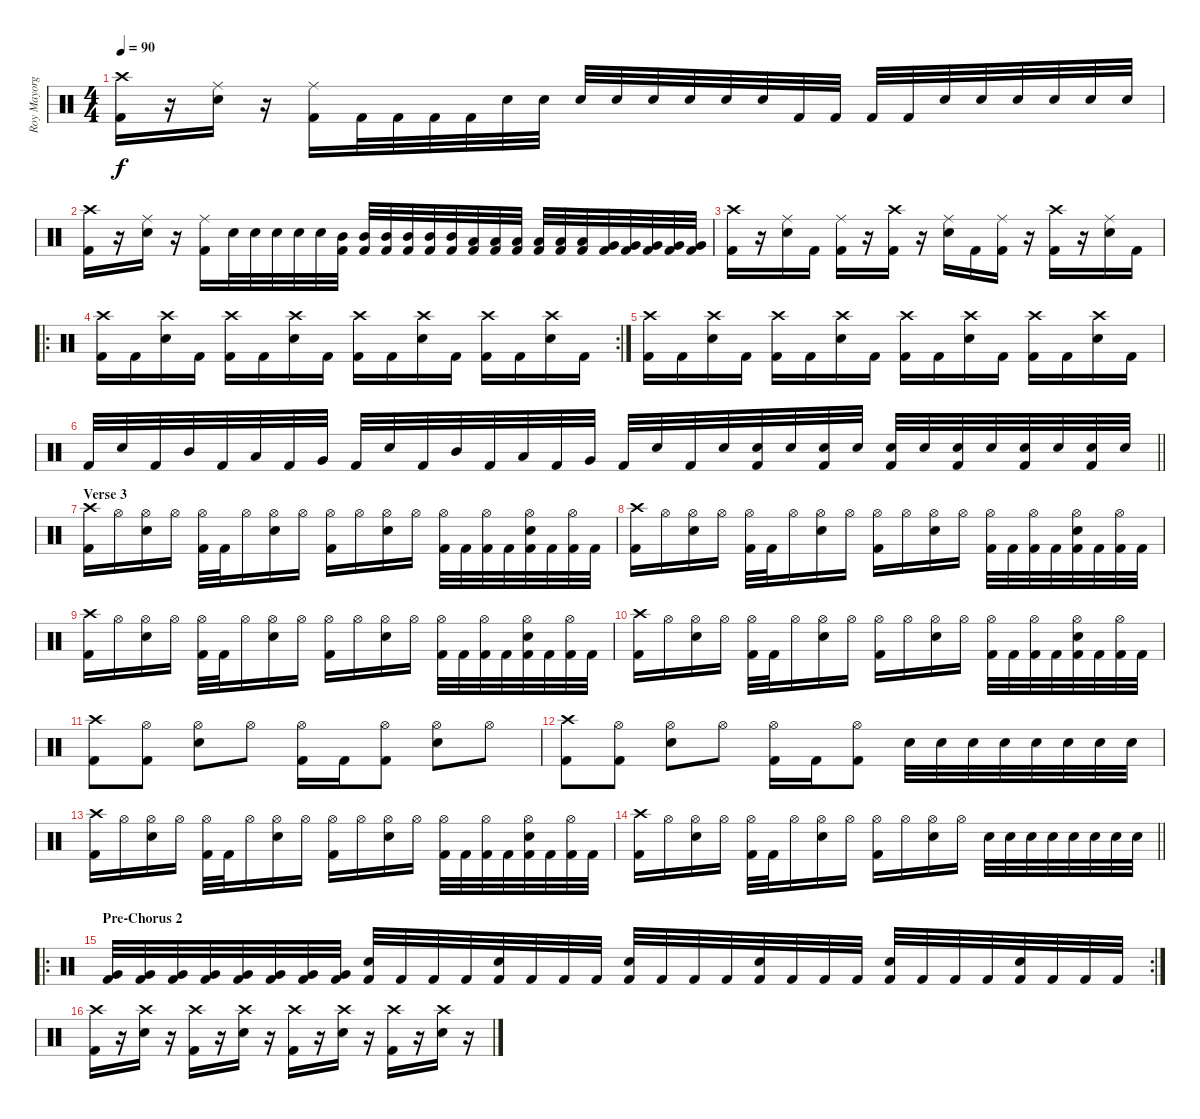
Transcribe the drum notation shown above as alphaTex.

\track ("Roy Mayorga" "Roy Mayorg") {instrument percussion}
\staff {score}
\articulation defaults
\ts (4 4)
\tempo 90
\clef neutral
\ks c
("Kick (hit) 2" "Crash high (hit)").16{dy f} r.16 ("Electric Snare (hit)" "Ride (middle)").16 r.16 ("Kick (hit) 2" "Ride (middle)").16 "Kick (hit) 2".32 "Kick (hit) 2".32 "Kick (hit) 2".32 "Kick (hit) 2".32 "Electric Snare (hit)".32 "Electric Snare (hit)".32 "Electric Snare (hit)".32 "Electric Snare (hit)".32 "Electric Snare (hit)".32 "Electric Snare (hit)".32 "Electric Snare (hit)".32 "Electric Snare (hit)".32 "Kick (hit) 2".32 "Kick (hit) 2".32 "Kick (hit) 2".32 "Kick (hit) 2".32 "Electric Snare (hit)".32 "Electric Snare (hit)".32 "Electric Snare (hit)".32 "Electric Snare (hit)".32 "Electric Snare (hit)".32 "Electric Snare (hit)".32 |
("Kick (hit) 2" "Crash high (hit)").16 r.16 ("Electric Snare (hit)" "Ride (middle)").16 r.16 ("Kick (hit) 2" "Ride (middle)").16 "Electric Snare (hit)".32 "Electric Snare (hit)".32 "Electric Snare (hit)".32 "Electric Snare (hit)".32 "Electric Snare (hit)".32 ("Kick (hit) 2" "Mid Tom (hit)").32 ("Kick (hit) 2" "Mid Tom (hit)").32 ("Kick (hit) 2" "Mid Tom (hit)").32 ("Kick (hit) 2" "Mid Tom (hit)").32 ("Kick (hit) 2" "Mid Tom (hit)").32 ("Kick (hit) 2" "Mid Tom (hit)").32 ("Kick (hit) 2" "Low Tom (hit)").32 ("Kick (hit) 2" "Low Tom (hit)").32 ("Kick (hit) 2" "Low Tom (hit)").32 ("Kick (hit) 2" "Low Tom (hit)").32 ("Kick (hit) 2" "Low Tom (hit)").32 ("Kick (hit) 2" "Low Tom (hit)").32 ("Kick (hit) 2" "Very Low Tom (hit)").32 ("Kick (hit) 2" "Very Low Tom (hit)").32 ("Kick (hit) 2" "Very Low Tom (hit)").32 ("Kick (hit) 2" "Very Low Tom (hit)").32 ("Kick (hit) 2" "Very Low Tom (hit)").32 |
("Kick (hit) 2" "Crash high (hit)").16 r.16 ("Electric Snare (hit)" "Ride (middle)").16 "Kick (hit) 2".16 ("Kick (hit) 2" "Ride (middle)").16 r.16 ("Kick (hit) 2" "Crash high (hit)").16 r.16 ("Electric Snare (hit)" "Ride (middle)").16 "Kick (hit) 2".16 ("Kick (hit) 2" "Ride (middle)").16 r.16 ("Kick (hit) 2" "Crash high (hit)").16 r.16 ("Electric Snare (hit)" "Ride (middle)").16 "Kick (hit) 2".16 |
\ro
\rc 2
("Kick (hit) 2" "Crash high (hit)").16 "Kick (hit) 2".16 ("Electric Snare (hit)" "Crash high (hit)").16 "Kick (hit) 2".16 ("Kick (hit) 2" "Crash high (hit)").16 "Kick (hit) 2".16 ("Electric Snare (hit)" "Crash high (hit)").16 "Kick (hit) 2".16 ("Kick (hit) 2" "Crash high (hit)").16 "Kick (hit) 2".16 ("Electric Snare (hit)" "Crash high (hit)").16 "Kick (hit) 2".16 ("Kick (hit) 2" "Crash high (hit)").16 "Kick (hit) 2".16 ("Electric Snare (hit)" "Crash high (hit)").16 "Kick (hit) 2".16 |
("Kick (hit) 2" "Crash high (hit)").16 "Kick (hit) 2".16 ("Electric Snare (hit)" "Crash high (hit)").16 "Kick (hit) 2".16 ("Kick (hit) 2" "Crash high (hit)").16 "Kick (hit) 2".16 ("Electric Snare (hit)" "Crash high (hit)").16 "Kick (hit) 2".16 ("Kick (hit) 2" "Crash high (hit)").16 "Kick (hit) 2".16 ("Electric Snare (hit)" "Crash high (hit)").16 "Kick (hit) 2".16 ("Kick (hit) 2" "Crash high (hit)").16 "Kick (hit) 2".16 ("Electric Snare (hit)" "Crash high (hit)").16 "Kick (hit) 2".16 |
\barLineRight lightlight "Kick (hit) 2".32 "Electric Snare (hit)".32 "Kick (hit) 2".32 "Mid Tom (hit)".32 "Kick (hit) 2".32 "Low Tom (hit)".32 "Kick (hit) 2".32 "Very Low Tom (hit)".32 "Kick (hit) 2".32 "Electric Snare (hit)".32 "Kick (hit) 2".32 "Mid Tom (hit)".32 "Kick (hit) 2".32 "Low Tom (hit)".32 "Kick (hit) 2".32 "Very Low Tom (hit)".32 "Kick (hit) 2".32 "Electric Snare (hit)".32 "Kick (hit) 2".32 "Electric Snare (hit)".32
("Kick (hit) 2" "Electric Snare (hit)").32 "Electric Snare (hit)".32 ("Kick (hit) 2" "Electric Snare (hit)").32 "Electric Snare (hit)".32 ("Kick (hit) 2" "Electric Snare (hit)").32 "Electric Snare (hit)".32 ("Kick (hit) 2" "Electric Snare (hit)").32 "Electric Snare (hit)".32 ("Kick (hit) 2" "Electric Snare (hit)").32 "Electric Snare (hit)".32 ("Kick (hit) 2" "Electric Snare (hit)").32 "Electric Snare (hit)".32 |
\section ("" "Verse 3")
("Kick (hit) 2" "Crash high (hit)").16 "Hi-Hat (open)".16 ("Electric Snare (hit)" "Hi-Hat (open)").16 "Hi-Hat (open)".16 ("Kick (hit) 2" "Hi-Hat (open)").32 "Kick (hit) 2".32 "Hi-Hat (open)".16 ("Electric Snare (hit)" "Hi-Hat (open)").16 "Hi-Hat (open)".16 ("Kick (hit) 2" "Hi-Hat (open)").16 "Hi-Hat (open)".16 ("Electric Snare (hit)" "Hi-Hat (open)").16 "Hi-Hat (open)".16 ("Kick (hit) 2" "Hi-Hat (open)").32 "Kick (hit) 2".32 ("Kick (hit) 2" "Hi-Hat (open)").32 "Kick (hit) 2".32 ("Kick (hit) 2" "Electric Snare (hit)" "Hi-Hat (open)").32 "Kick (hit) 2".32 ("Kick (hit) 2" "Hi-Hat (open)").32 "Kick (hit) 2".32 |
("Kick (hit) 2" "Crash high (hit)").16 "Hi-Hat (open)".16 ("Electric Snare (hit)" "Hi-Hat (open)").16 "Hi-Hat (open)".16 ("Kick (hit) 2" "Hi-Hat (open)").32 "Kick (hit) 2".32 "Hi-Hat (open)".16 ("Electric Snare (hit)" "Hi-Hat (open)").16 "Hi-Hat (open)".16 ("Kick (hit) 2" "Hi-Hat (open)").16 "Hi-Hat (open)".16 ("Electric Snare (hit)" "Hi-Hat (open)").16 "Hi-Hat (open)".16 ("Kick (hit) 2" "Hi-Hat (open)").32 "Kick (hit) 2".32 ("Kick (hit) 2" "Hi-Hat (open)").32 "Kick (hit) 2".32 ("Kick (hit) 2" "Electric Snare (hit)" "Hi-Hat (open)").32 "Kick (hit) 2".32 ("Kick (hit) 2" "Hi-Hat (open)").32 "Kick (hit) 2".32 |
("Kick (hit) 2" "Crash high (hit)").16 "Hi-Hat (open)".16 ("Electric Snare (hit)" "Hi-Hat (open)").16 "Hi-Hat (open)".16 ("Kick (hit) 2" "Hi-Hat (open)").32 "Kick (hit) 2".32 "Hi-Hat (open)".16 ("Electric Snare (hit)" "Hi-Hat (open)").16 "Hi-Hat (open)".16 ("Kick (hit) 2" "Hi-Hat (open)").16 "Hi-Hat (open)".16 ("Electric Snare (hit)" "Hi-Hat (open)").16 "Hi-Hat (open)".16 ("Kick (hit) 2" "Hi-Hat (open)").32 "Kick (hit) 2".32 ("Kick (hit) 2" "Hi-Hat (open)").32 "Kick (hit) 2".32 ("Kick (hit) 2" "Electric Snare (hit)" "Hi-Hat (open)").32 "Kick (hit) 2".32 ("Kick (hit) 2" "Hi-Hat (open)").32 "Kick (hit) 2".32 |
("Kick (hit) 2" "Crash high (hit)").16 "Hi-Hat (open)".16 ("Electric Snare (hit)" "Hi-Hat (open)").16 "Hi-Hat (open)".16 ("Kick (hit) 2" "Hi-Hat (open)").32 "Kick (hit) 2".32 "Hi-Hat (open)".16 ("Electric Snare (hit)" "Hi-Hat (open)").16 "Hi-Hat (open)".16 ("Kick (hit) 2" "Hi-Hat (open)").16 "Hi-Hat (open)".16 ("Electric Snare (hit)" "Hi-Hat (open)").16 "Hi-Hat (open)".16 ("Kick (hit) 2" "Hi-Hat (open)").32 "Kick (hit) 2".32 ("Kick (hit) 2" "Hi-Hat (open)").32 "Kick (hit) 2".32 ("Kick (hit) 2" "Electric Snare (hit)" "Hi-Hat (open)").32 "Kick (hit) 2".32 ("Kick (hit) 2" "Hi-Hat (open)").32 "Kick (hit) 2".32 |
("Kick (hit) 2" "Crash high (hit)").8 ("Kick (hit) 2" "Hi-Hat (open)").8 ("Electric Snare (hit)" "Hi-Hat (open)").8 "Hi-Hat (open)".8 ("Kick (hit) 2" "Hi-Hat (open)").16 "Kick (hit) 2".16 ("Kick (hit) 2" "Hi-Hat (open)").8 ("Electric Snare (hit)" "Hi-Hat (open)").8 "Hi-Hat (open)".8 |
("Kick (hit) 2" "Crash high (hit)").8 ("Kick (hit) 2" "Hi-Hat (open)").8 ("Electric Snare (hit)" "Hi-Hat (open)").8 "Hi-Hat (open)".8 ("Kick (hit) 2" "Hi-Hat (open)").16 "Kick (hit) 2".16 ("Kick (hit) 2" "Hi-Hat (open)").8 "Electric Snare (hit)".32 "Electric Snare (hit)".32 "Electric Snare (hit)".32 "Electric Snare (hit)".32 "Electric Snare (hit)".32 "Electric Snare (hit)".32 "Electric Snare (hit)".32 "Electric Snare (hit)".32 |
("Kick (hit) 2" "Crash high (hit)").16 "Hi-Hat (open)".16 ("Electric Snare (hit)" "Hi-Hat (open)").16 "Hi-Hat (open)".16 ("Kick (hit) 2" "Hi-Hat (open)").32 "Kick (hit) 2".32 "Hi-Hat (open)".16 ("Electric Snare (hit)" "Hi-Hat (open)").16 "Hi-Hat (open)".16 ("Kick (hit) 2" "Hi-Hat (open)").16 "Hi-Hat (open)".16 ("Electric Snare (hit)" "Hi-Hat (open)").16 "Hi-Hat (open)".16 ("Kick (hit) 2" "Hi-Hat (open)").32 "Kick (hit) 2".32 ("Kick (hit) 2" "Hi-Hat (open)").32 "Kick (hit) 2".32 ("Kick (hit) 2" "Electric Snare (hit)" "Hi-Hat (open)").32 "Kick (hit) 2".32 ("Kick (hit) 2" "Hi-Hat (open)").32 "Kick (hit) 2".32 |
\barLineRight lightlight
("Kick (hit) 2" "Crash high (hit)").16 "Hi-Hat (open)".16 ("Electric Snare (hit)" "Hi-Hat (open)").16 "Hi-Hat (open)".16 ("Kick (hit) 2" "Hi-Hat (open)").32 "Kick (hit) 2".32 "Hi-Hat (open)".16 ("Electric Snare (hit)" "Hi-Hat (open)").16 "Hi-Hat (open)".16 ("Kick (hit) 2" "Hi-Hat (open)").16 "Hi-Hat (open)".16 ("Electric Snare (hit)" "Hi-Hat (open)").16 "Hi-Hat (open)".16 "Electric Snare (hit)".32 "Electric Snare (hit)".32 "Electric Snare (hit)".32 "Electric Snare (hit)".32 "Electric Snare (hit)".32 "Electric Snare (hit)".32 "Electric Snare (hit)".32 "Electric Snare (hit)".32 |
\ro
\rc 2
\section ("" "Pre-Chorus 2")
("Kick (hit) 2" "Very Low Tom (hit)").32 ("Kick (hit) 2" "Very Low Tom (hit)").32 ("Kick (hit) 2" "Very Low Tom (hit)").32 ("Kick (hit) 2" "Very Low Tom (hit)").32 ("Kick (hit) 2" "Very Low Tom (hit)").32 ("Kick (hit) 2" "Very Low Tom (hit)").32 ("Kick (hit) 2" "Very Low Tom (hit)").32 ("Kick (hit) 2" "Very Low Tom (hit)").32 ("Kick (hit) 2" "Electric Snare (hit)").32 "Kick (hit) 2".32 "Kick (hit) 2".32 "Kick (hit) 2".32 ("Kick (hit) 2" "Electric Snare (hit)").32 "Kick (hit) 2".32 "Kick (hit) 2".32 "Kick (hit) 2".32 ("Kick (hit) 2" "Electric Snare (hit)").32 "Kick (hit) 2".32 "Kick (hit) 2".32 "Kick (hit) 2".32 ("Kick (hit) 2" "Electric Snare (hit)").32 "Kick (hit) 2".32 "Kick (hit) 2".32 "Kick (hit) 2".32 ("Kick (hit) 2" "Electric Snare (hit)").32 "Kick (hit) 2".32 "Kick (hit) 2".32 "Kick (hit) 2".32 ("Kick (hit) 2" "Electric Snare (hit)").32 "Kick (hit) 2".32 "Kick (hit) 2".32 "Kick (hit) 2".32 |
("Kick (hit) 2" "Crash high (hit)").16 r.16 ("Electric Snare (hit)" "Crash high (hit)").16 r.16 ("Kick (hit) 2" "Crash high (hit)").16 r.16 ("Electric Snare (hit)" "Crash high (hit)").16 r.16 ("Kick (hit) 2" "Crash high (hit)").16 r.16 ("Electric Snare (hit)" "Crash high (hit)").16 r.16 ("Kick (hit) 2" "Crash high (hit)").16 r.16 ("Electric Snare (hit)" "Crash high (hit)").16 r.16
